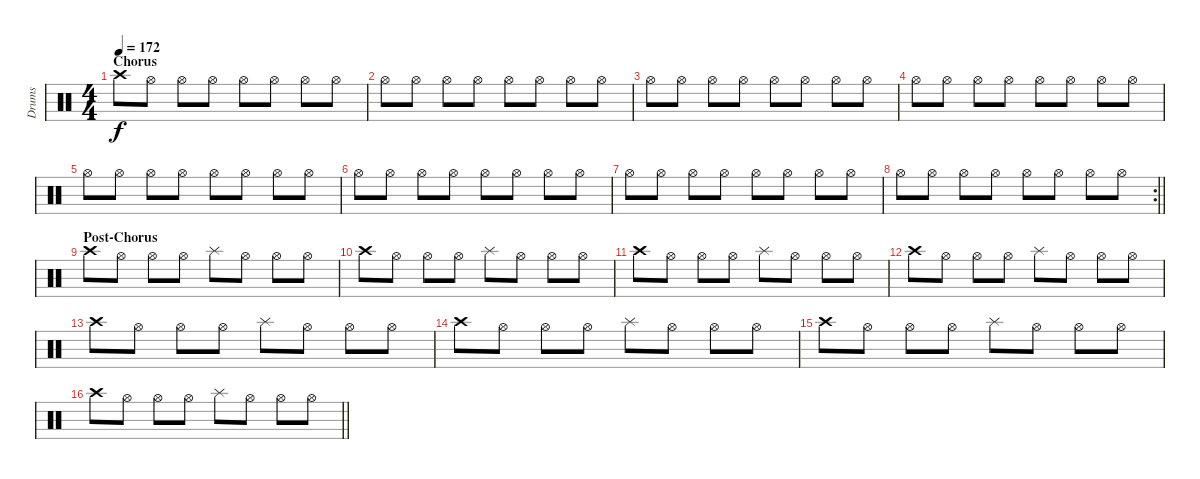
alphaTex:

\track ("Drums" "Drums") {instrument percussion}
\staff {score}
\articulation defaults
\ts (4 4)
\section ("" "Chorus")
\tempo 172
\clef neutral
\ks c "Crash high (hit)".8{dy f} "Hi-Hat (open)".8 "Hi-Hat (open)".8 "Hi-Hat (open)".8 "Hi-Hat (open)".8 "Hi-Hat (open)".8 "Hi-Hat (open)".8 "Hi-Hat (open)".8
|
"Hi-Hat (open)".8 "Hi-Hat (open)".8 "Hi-Hat (open)".8 "Hi-Hat (open)".8 "Hi-Hat (open)".8 "Hi-Hat (open)".8 "Hi-Hat (open)".8 "Hi-Hat (open)".8 |
"Hi-Hat (open)".8 "Hi-Hat (open)".8 "Hi-Hat (open)".8 "Hi-Hat (open)".8 "Hi-Hat (open)".8 "Hi-Hat (open)".8 "Hi-Hat (open)".8 "Hi-Hat (open)".8 |
"Hi-Hat (open)".8 "Hi-Hat (open)".8 "Hi-Hat (open)".8 "Hi-Hat (open)".8 "Hi-Hat (open)".8 "Hi-Hat (open)".8 "Hi-Hat (open)".8 "Hi-Hat (open)".8 |
"Hi-Hat (open)".8 "Hi-Hat (open)".8 "Hi-Hat (open)".8 "Hi-Hat (open)".8 "Hi-Hat (open)".8 "Hi-Hat (open)".8 "Hi-Hat (open)".8 "Hi-Hat (open)".8 |
"Hi-Hat (open)".8 "Hi-Hat (open)".8 "Hi-Hat (open)".8 "Hi-Hat (open)".8 "Hi-Hat (open)".8 "Hi-Hat (open)".8 "Hi-Hat (open)".8 "Hi-Hat (open)".8 |
"Hi-Hat (open)".8 "Hi-Hat (open)".8 "Hi-Hat (open)".8 "Hi-Hat (open)".8 "Hi-Hat (open)".8 "Hi-Hat (open)".8 "Hi-Hat (open)".8 "Hi-Hat (open)".8 |
\rc 2
\barLineRight lightlight "Hi-Hat (open)".8 "Hi-Hat (open)".8 "Hi-Hat (open)".8 "Hi-Hat (open)".8 "Hi-Hat (open)".8 "Hi-Hat (open)".8 "Hi-Hat (open)".8 "Hi-Hat (open)".8
|
\section ("" "Post-Chorus")
"Crash high (hit)".8 "Hi-Hat (open)".8 "Hi-Hat (open)".8 "Hi-Hat (open)".8 "Splash (hit)".8 "Hi-Hat (open)".8 "Hi-Hat (open)".8 "Hi-Hat (open)".8 |
"Crash high (hit)".8 "Hi-Hat (open)".8 "Hi-Hat (open)".8 "Hi-Hat (open)".8 "Splash (hit)".8 "Hi-Hat (open)".8 "Hi-Hat (open)".8 "Hi-Hat (open)".8 |
"Crash high (hit)".8 "Hi-Hat (open)".8 "Hi-Hat (open)".8 "Hi-Hat (open)".8 "Splash (hit)".8 "Hi-Hat (open)".8 "Hi-Hat (open)".8 "Hi-Hat (open)".8 |
"Crash high (hit)".8 "Hi-Hat (open)".8 "Hi-Hat (open)".8 "Hi-Hat (open)".8 "Splash (hit)".8 "Hi-Hat (open)".8 "Hi-Hat (open)".8 "Hi-Hat (open)".8 |
"Crash high (hit)".8 "Hi-Hat (open)".8 "Hi-Hat (open)".8 "Hi-Hat (open)".8 "Splash (hit)".8 "Hi-Hat (open)".8 "Hi-Hat (open)".8 "Hi-Hat (open)".8 |
"Crash high (hit)".8 "Hi-Hat (open)".8 "Hi-Hat (open)".8 "Hi-Hat (open)".8 "Splash (hit)".8 "Hi-Hat (open)".8 "Hi-Hat (open)".8 "Hi-Hat (open)".8 |
"Crash high (hit)".8 "Hi-Hat (open)".8 "Hi-Hat (open)".8 "Hi-Hat (open)".8 "Splash (hit)".8 "Hi-Hat (open)".8 "Hi-Hat (open)".8 "Hi-Hat (open)".8 |
\barLineRight lightlight "Crash high (hit)".8 "Hi-Hat (open)".8 "Hi-Hat (open)".8 "Hi-Hat (open)".8 "Splash (hit)".8 "Hi-Hat (open)".8 "Hi-Hat (open)".8 "Hi-Hat (open)".8
